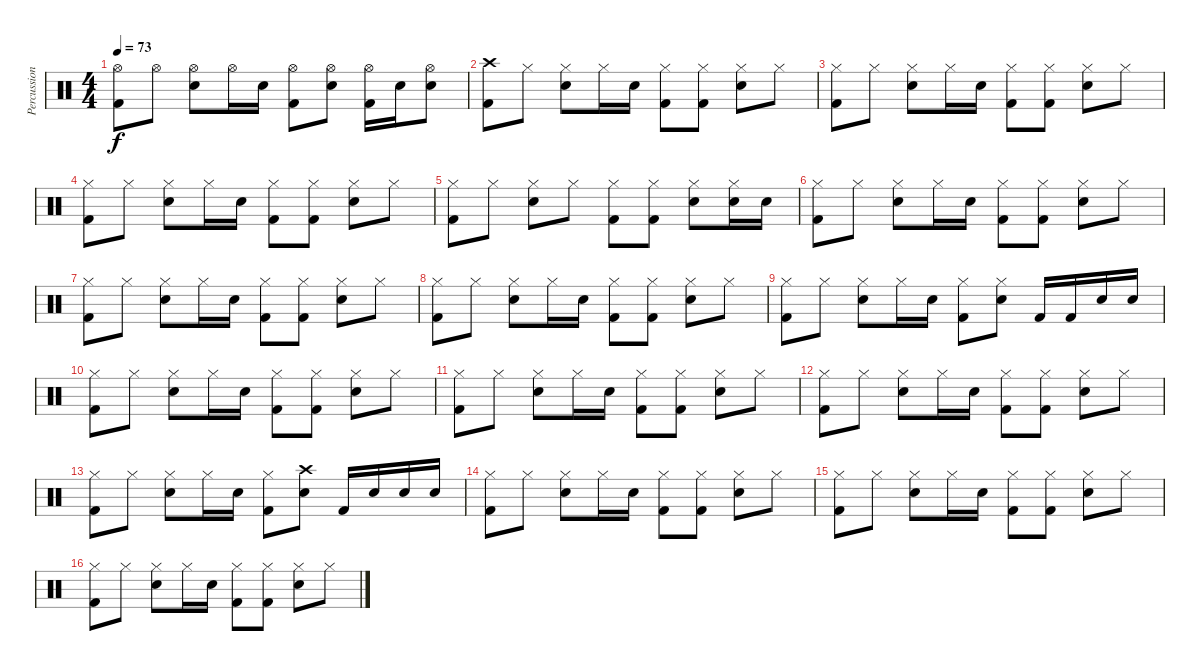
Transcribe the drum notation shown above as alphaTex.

\track ("Percussioni" "Percussion") {instrument percussion}
\staff {score}
\articulation defaults
\ts (4 4)
\tempo 73
\clef neutral
\ks c
("Hi-Hat (open)" "Kick (hit) 2").8{dy f} "Hi-Hat (open)".8 ("Hi-Hat (open)" "Electric Snare (hit)").8 "Hi-Hat (open)".16 "Electric Snare (hit)".16 ("Hi-Hat (open)" "Kick (hit) 2").8 ("Hi-Hat (open)" "Electric Snare (hit)").8 ("Hi-Hat (open)" "Kick (hit) 2").16 "Electric Snare (hit)".16 ("Hi-Hat (open)" "Electric Snare (hit)").8 |
("Crash high (hit)" "Kick (hit) 2").8 "Hi-Hat (closed)".8 ("Hi-Hat (closed)" "Electric Snare (hit)").8 "Hi-Hat (closed)".16 "Electric Snare (hit)".16 ("Hi-Hat (closed)" "Kick (hit) 2").8 ("Hi-Hat (closed)" "Kick (hit) 2").8 ("Hi-Hat (closed)" "Electric Snare (hit)").8 "Hi-Hat (closed)".8 |
("Hi-Hat (closed)" "Kick (hit) 2").8 "Hi-Hat (closed)".8 ("Hi-Hat (closed)" "Electric Snare (hit)").8 "Hi-Hat (closed)".16 "Electric Snare (hit)".16 ("Hi-Hat (closed)" "Kick (hit) 2").8 ("Hi-Hat (closed)" "Kick (hit) 2").8 ("Hi-Hat (closed)" "Electric Snare (hit)").8 "Hi-Hat (closed)".8 |
("Hi-Hat (closed)" "Kick (hit) 2").8 "Hi-Hat (closed)".8 ("Hi-Hat (closed)" "Electric Snare (hit)").8 "Hi-Hat (closed)".16 "Electric Snare (hit)".16 ("Hi-Hat (closed)" "Kick (hit) 2").8 ("Hi-Hat (closed)" "Kick (hit) 2").8 ("Hi-Hat (closed)" "Electric Snare (hit)").8 "Hi-Hat (closed)".8 |
("Hi-Hat (closed)" "Kick (hit) 2").8 "Hi-Hat (closed)".8 ("Hi-Hat (closed)" "Electric Snare (hit)").8 "Hi-Hat (closed)".8 ("Hi-Hat (closed)" "Kick (hit) 2").8 ("Hi-Hat (closed)" "Kick (hit) 2").8 ("Hi-Hat (closed)" "Electric Snare (hit)").8 ("Hi-Hat (closed)" "Electric Snare (hit)").16 "Electric Snare (hit)".16 |
("Hi-Hat (closed)" "Kick (hit) 2").8 "Hi-Hat (closed)".8 ("Hi-Hat (closed)" "Electric Snare (hit)").8 "Hi-Hat (closed)".16 "Electric Snare (hit)".16 ("Hi-Hat (closed)" "Kick (hit) 2").8 ("Hi-Hat (closed)" "Kick (hit) 2").8 ("Hi-Hat (closed)" "Electric Snare (hit)").8 "Hi-Hat (closed)".8 |
("Hi-Hat (closed)" "Kick (hit) 2").8 "Hi-Hat (closed)".8 ("Hi-Hat (closed)" "Electric Snare (hit)").8 "Hi-Hat (closed)".16 "Electric Snare (hit)".16 ("Hi-Hat (closed)" "Kick (hit) 2").8 ("Hi-Hat (closed)" "Kick (hit) 2").8 ("Hi-Hat (closed)" "Electric Snare (hit)").8 "Hi-Hat (closed)".8 |
("Hi-Hat (closed)" "Kick (hit) 2").8 "Hi-Hat (closed)".8 ("Hi-Hat (closed)" "Electric Snare (hit)").8 "Hi-Hat (closed)".16 "Electric Snare (hit)".16 ("Hi-Hat (closed)" "Kick (hit) 2").8 ("Hi-Hat (closed)" "Kick (hit) 2").8 ("Hi-Hat (closed)" "Electric Snare (hit)").8 "Hi-Hat (closed)".8 |
("Hi-Hat (closed)" "Kick (hit) 2").8 "Hi-Hat (closed)".8 ("Hi-Hat (closed)" "Electric Snare (hit)").8 "Hi-Hat (closed)".16 "Electric Snare (hit)".16 ("Hi-Hat (closed)" "Kick (hit) 2").8 ("Hi-Hat (closed)" "Electric Snare (hit)").8 "Kick (hit) 2".16 "Kick (hit) 2".16 "Electric Snare (hit)".16 "Electric Snare (hit)".16 |
("Hi-Hat (closed)" "Kick (hit) 2").8 "Hi-Hat (closed)".8 ("Hi-Hat (closed)" "Electric Snare (hit)").8 "Hi-Hat (closed)".16 "Electric Snare (hit)".16 ("Hi-Hat (closed)" "Kick (hit) 2").8 ("Hi-Hat (closed)" "Kick (hit) 2").8 ("Hi-Hat (closed)" "Electric Snare (hit)").8 "Hi-Hat (closed)".8 |
("Hi-Hat (closed)" "Kick (hit) 2").8 "Hi-Hat (closed)".8 ("Hi-Hat (closed)" "Electric Snare (hit)").8 "Hi-Hat (closed)".16 "Electric Snare (hit)".16 ("Hi-Hat (closed)" "Kick (hit) 2").8 ("Hi-Hat (closed)" "Kick (hit) 2").8 ("Hi-Hat (closed)" "Electric Snare (hit)").8 "Hi-Hat (closed)".8 |
("Hi-Hat (closed)" "Kick (hit) 2").8 "Hi-Hat (closed)".8 ("Hi-Hat (closed)" "Electric Snare (hit)").8 "Hi-Hat (closed)".16 "Electric Snare (hit)".16 ("Hi-Hat (closed)" "Kick (hit) 2").8 ("Hi-Hat (closed)" "Kick (hit) 2").8 ("Hi-Hat (closed)" "Electric Snare (hit)").8 "Hi-Hat (closed)".8 |
("Hi-Hat (closed)" "Kick (hit) 2").8 "Hi-Hat (closed)".8 ("Hi-Hat (closed)" "Electric Snare (hit)").8 "Hi-Hat (closed)".16 "Electric Snare (hit)".16 ("Hi-Hat (closed)" "Kick (hit) 2").8 ("Crash high (hit)" "Electric Snare (hit)").8 "Kick (hit) 2".16 "Electric Snare (hit)".16 "Electric Snare (hit)".16 "Electric Snare (hit)".16 |
("Hi-Hat (closed)" "Kick (hit) 2").8 "Hi-Hat (closed)".8 ("Hi-Hat (closed)" "Electric Snare (hit)").8 "Hi-Hat (closed)".16 "Electric Snare (hit)".16 ("Hi-Hat (closed)" "Kick (hit) 2").8 ("Hi-Hat (closed)" "Kick (hit) 2").8 ("Hi-Hat (closed)" "Electric Snare (hit)").8 "Hi-Hat (closed)".8 |
("Hi-Hat (closed)" "Kick (hit) 2").8 "Hi-Hat (closed)".8 ("Hi-Hat (closed)" "Electric Snare (hit)").8 "Hi-Hat (closed)".16 "Electric Snare (hit)".16 ("Hi-Hat (closed)" "Kick (hit) 2").8 ("Hi-Hat (closed)" "Kick (hit) 2").8 ("Hi-Hat (closed)" "Electric Snare (hit)").8 "Hi-Hat (closed)".8 |
("Hi-Hat (closed)" "Kick (hit) 2").8 "Hi-Hat (closed)".8 ("Hi-Hat (closed)" "Electric Snare (hit)").8 "Hi-Hat (closed)".16 "Electric Snare (hit)".16 ("Hi-Hat (closed)" "Kick (hit) 2").8 ("Hi-Hat (closed)" "Kick (hit) 2").8 ("Hi-Hat (closed)" "Electric Snare (hit)").8 "Hi-Hat (closed)".8
